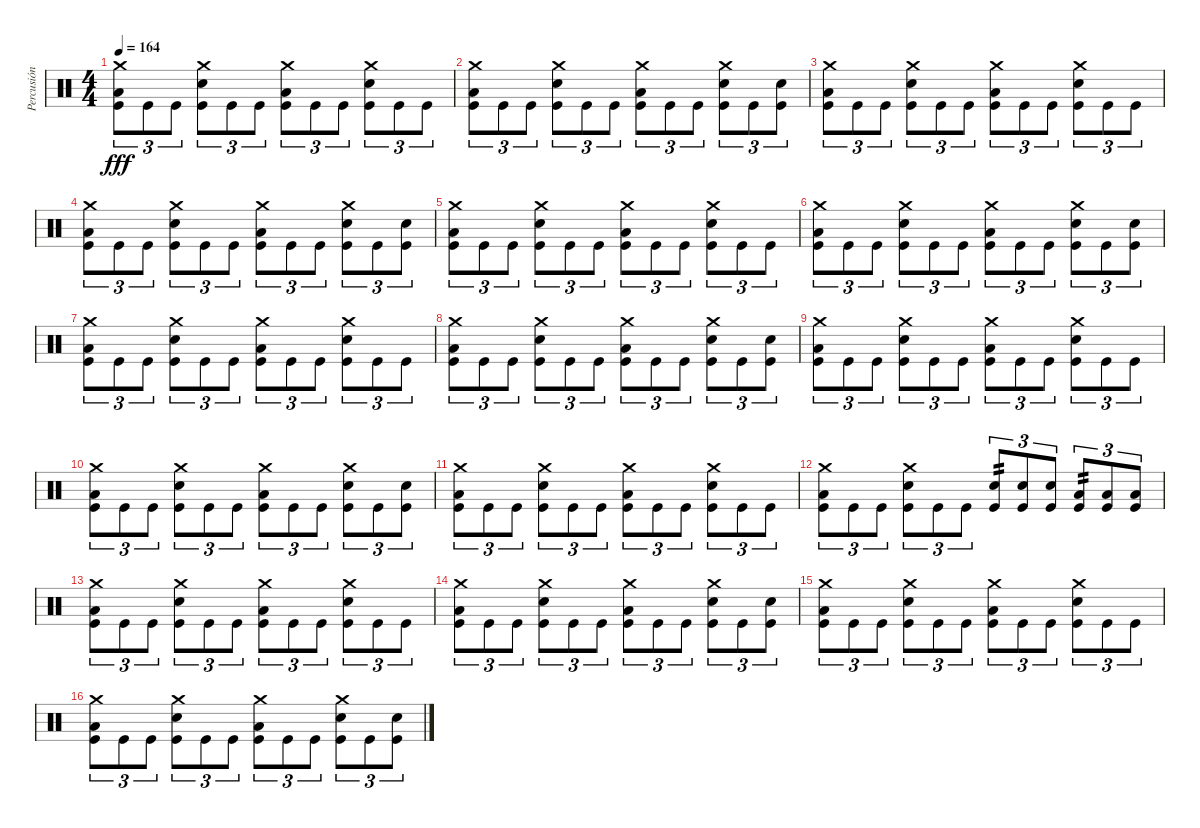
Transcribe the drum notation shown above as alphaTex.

\track ("Percusión" "Percusión") {instrument percussion}
\staff {score}
\articulation defaults
\ts (4 4)
\tempo 164
\clef neutral
\ks c
("Crash medium (hit)" "Low Floor Tom (hit)" "Kick (hit)").8{tu (3 2) dy fff} "Kick (hit)".8{tu (3 2)} "Kick (hit)".8{tu (3 2)} ("Crash medium (hit)" "Snare (hit) 2" "Kick (hit)").8{tu (3 2)} "Kick (hit)".8{tu (3 2)} "Kick (hit)".8{tu (3 2)} ("Crash medium (hit)" "Low Floor Tom (hit)" "Kick (hit)").8{tu (3 2)} "Kick (hit)".8{tu (3 2)} "Kick (hit)".8{tu (3 2)} ("Crash medium (hit)" "Snare (hit) 2" "Kick (hit)").8{tu (3 2)} "Kick (hit)".8{tu (3 2)} "Kick (hit)".8{tu (3 2)} |
("Crash medium (hit)" "Low Floor Tom (hit)" "Kick (hit)").8{tu (3 2)} "Kick (hit)".8{tu (3 2)} "Kick (hit)".8{tu (3 2)} ("Crash medium (hit)" "Snare (hit) 2" "Kick (hit)").8{tu (3 2)} "Kick (hit)".8{tu (3 2)} "Kick (hit)".8{tu (3 2)} ("Crash medium (hit)" "Low Floor Tom (hit)" "Kick (hit)").8{tu (3 2)} "Kick (hit)".8{tu (3 2)} "Kick (hit)".8{tu (3 2)} ("Crash medium (hit)" "Snare (hit) 2" "Kick (hit)").8{tu (3 2)} "Kick (hit)".8{tu (3 2)} ("Snare (hit) 2" "Kick (hit)").8{tu (3 2)} |
("Crash medium (hit)" "Low Floor Tom (hit)" "Kick (hit)").8{tu (3 2)} "Kick (hit)".8{tu (3 2)} "Kick (hit)".8{tu (3 2)} ("Crash medium (hit)" "Snare (hit) 2" "Kick (hit)").8{tu (3 2)} "Kick (hit)".8{tu (3 2)} "Kick (hit)".8{tu (3 2)} ("Crash medium (hit)" "Low Floor Tom (hit)" "Kick (hit)").8{tu (3 2)} "Kick (hit)".8{tu (3 2)} "Kick (hit)".8{tu (3 2)} ("Crash medium (hit)" "Snare (hit) 2" "Kick (hit)").8{tu (3 2)} "Kick (hit)".8{tu (3 2)} "Kick (hit)".8{tu (3 2)} |
("Crash medium (hit)" "Low Floor Tom (hit)" "Kick (hit)").8{tu (3 2)} "Kick (hit)".8{tu (3 2)} "Kick (hit)".8{tu (3 2)} ("Crash medium (hit)" "Snare (hit) 2" "Kick (hit)").8{tu (3 2)} "Kick (hit)".8{tu (3 2)} "Kick (hit)".8{tu (3 2)} ("Crash medium (hit)" "Low Floor Tom (hit)" "Kick (hit)").8{tu (3 2)} "Kick (hit)".8{tu (3 2)} "Kick (hit)".8{tu (3 2)} ("Crash medium (hit)" "Snare (hit) 2" "Kick (hit)").8{tu (3 2)} "Kick (hit)".8{tu (3 2)} ("Snare (hit) 2" "Kick (hit)").8{tu (3 2)} |
("Crash medium (hit)" "Low Floor Tom (hit)" "Kick (hit)").8{tu (3 2)} "Kick (hit)".8{tu (3 2)} "Kick (hit)".8{tu (3 2)} ("Crash medium (hit)" "Snare (hit) 2" "Kick (hit)").8{tu (3 2)} "Kick (hit)".8{tu (3 2)} "Kick (hit)".8{tu (3 2)} ("Crash medium (hit)" "Low Floor Tom (hit)" "Kick (hit)").8{tu (3 2)} "Kick (hit)".8{tu (3 2)} "Kick (hit)".8{tu (3 2)} ("Crash medium (hit)" "Snare (hit) 2" "Kick (hit)").8{tu (3 2)} "Kick (hit)".8{tu (3 2)} "Kick (hit)".8{tu (3 2)} |
("Crash medium (hit)" "Low Floor Tom (hit)" "Kick (hit)").8{tu (3 2)} "Kick (hit)".8{tu (3 2)} "Kick (hit)".8{tu (3 2)} ("Crash medium (hit)" "Snare (hit) 2" "Kick (hit)").8{tu (3 2)} "Kick (hit)".8{tu (3 2)} "Kick (hit)".8{tu (3 2)} ("Crash medium (hit)" "Low Floor Tom (hit)" "Kick (hit)").8{tu (3 2)} "Kick (hit)".8{tu (3 2)} "Kick (hit)".8{tu (3 2)} ("Crash medium (hit)" "Snare (hit) 2" "Kick (hit)").8{tu (3 2)} "Kick (hit)".8{tu (3 2)} ("Snare (hit) 2" "Kick (hit)").8{tu (3 2)} |
("Crash medium (hit)" "Low Floor Tom (hit)" "Kick (hit)").8{tu (3 2)} "Kick (hit)".8{tu (3 2)} "Kick (hit)".8{tu (3 2)} ("Crash medium (hit)" "Snare (hit) 2" "Kick (hit)").8{tu (3 2)} "Kick (hit)".8{tu (3 2)} "Kick (hit)".8{tu (3 2)} ("Crash medium (hit)" "Low Floor Tom (hit)" "Kick (hit)").8{tu (3 2)} "Kick (hit)".8{tu (3 2)} "Kick (hit)".8{tu (3 2)} ("Crash medium (hit)" "Snare (hit) 2" "Kick (hit)").8{tu (3 2)} "Kick (hit)".8{tu (3 2)} "Kick (hit)".8{tu (3 2)} |
("Crash medium (hit)" "Low Floor Tom (hit)" "Kick (hit)").8{tu (3 2)} "Kick (hit)".8{tu (3 2)} "Kick (hit)".8{tu (3 2)} ("Crash medium (hit)" "Snare (hit) 2" "Kick (hit)").8{tu (3 2)} "Kick (hit)".8{tu (3 2)} "Kick (hit)".8{tu (3 2)} ("Crash medium (hit)" "Low Floor Tom (hit)" "Kick (hit)").8{tu (3 2)} "Kick (hit)".8{tu (3 2)} "Kick (hit)".8{tu (3 2)} ("Crash medium (hit)" "Snare (hit) 2" "Kick (hit)").8{tu (3 2)} "Kick (hit)".8{tu (3 2)} ("Snare (hit) 2" "Kick (hit)").8{tu (3 2)} |
("Crash medium (hit)" "Low Floor Tom (hit)" "Kick (hit)").8{tu (3 2)} "Kick (hit)".8{tu (3 2)} "Kick (hit)".8{tu (3 2)} ("Crash medium (hit)" "Snare (hit) 2" "Kick (hit)").8{tu (3 2)} "Kick (hit)".8{tu (3 2)} "Kick (hit)".8{tu (3 2)} ("Crash medium (hit)" "Low Floor Tom (hit)" "Kick (hit)").8{tu (3 2)} "Kick (hit)".8{tu (3 2)} "Kick (hit)".8{tu (3 2)} ("Crash medium (hit)" "Snare (hit) 2" "Kick (hit)").8{tu (3 2)} "Kick (hit)".8{tu (3 2)} "Kick (hit)".8{tu (3 2)} |
("Crash medium (hit)" "Low Floor Tom (hit)" "Kick (hit)").8{tu (3 2)} "Kick (hit)".8{tu (3 2)} "Kick (hit)".8{tu (3 2)} ("Crash medium (hit)" "Snare (hit) 2" "Kick (hit)").8{tu (3 2)} "Kick (hit)".8{tu (3 2)} "Kick (hit)".8{tu (3 2)} ("Crash medium (hit)" "Low Floor Tom (hit)" "Kick (hit)").8{tu (3 2)} "Kick (hit)".8{tu (3 2)} "Kick (hit)".8{tu (3 2)} ("Crash medium (hit)" "Snare (hit) 2" "Kick (hit)").8{tu (3 2)} "Kick (hit)".8{tu (3 2)} ("Snare (hit) 2" "Kick (hit)").8{tu (3 2)} |
("Crash medium (hit)" "Low Floor Tom (hit)" "Kick (hit)").8{tu (3 2)} "Kick (hit)".8{tu (3 2)} "Kick (hit)".8{tu (3 2)} ("Crash medium (hit)" "Snare (hit) 2" "Kick (hit)").8{tu (3 2)} "Kick (hit)".8{tu (3 2)} "Kick (hit)".8{tu (3 2)} ("Crash medium (hit)" "Low Floor Tom (hit)" "Kick (hit)").8{tu (3 2)} "Kick (hit)".8{tu (3 2)} "Kick (hit)".8{tu (3 2)} ("Crash medium (hit)" "Snare (hit) 2" "Kick (hit)").8{tu (3 2)} "Kick (hit)".8{tu (3 2)} "Kick (hit)".8{tu (3 2)} |
("Crash medium (hit)" "Low Floor Tom (hit)" "Kick (hit)").8{tu (3 2)} "Kick (hit)".8{tu (3 2)} "Kick (hit)".8{tu (3 2)} ("Crash medium (hit)" "Snare (hit) 2" "Kick (hit)").8{tu (3 2)} "Kick (hit)".8{tu (3 2)} "Kick (hit)".8{tu (3 2)} ("Snare (hit) 2" "Kick (hit)").8{tu (3 2) tp 2} ("Snare (hit) 2" "Kick (hit)").8{tu (3 2)} ("Snare (hit) 2" "Kick (hit)").8{tu (3 2)} ("Low Floor Tom (hit)" "Kick (hit)").8{tu (3 2) tp 2} ("Low Floor Tom (hit)" "Kick (hit)").8{tu (3 2)} ("Low Floor Tom (hit)" "Kick (hit)").8{tu (3 2)} |
("Crash medium (hit)" "Low Floor Tom (hit)" "Kick (hit)").8{tu (3 2)} "Kick (hit)".8{tu (3 2)} "Kick (hit)".8{tu (3 2)} ("Crash medium (hit)" "Snare (hit) 2" "Kick (hit)").8{tu (3 2)} "Kick (hit)".8{tu (3 2)} "Kick (hit)".8{tu (3 2)} ("Crash medium (hit)" "Low Floor Tom (hit)" "Kick (hit)").8{tu (3 2)} "Kick (hit)".8{tu (3 2)} "Kick (hit)".8{tu (3 2)} ("Crash medium (hit)" "Snare (hit) 2" "Kick (hit)").8{tu (3 2)} "Kick (hit)".8{tu (3 2)} "Kick (hit)".8{tu (3 2)} |
("Crash medium (hit)" "Low Floor Tom (hit)" "Kick (hit)").8{tu (3 2)} "Kick (hit)".8{tu (3 2)} "Kick (hit)".8{tu (3 2)} ("Crash medium (hit)" "Snare (hit) 2" "Kick (hit)").8{tu (3 2)} "Kick (hit)".8{tu (3 2)} "Kick (hit)".8{tu (3 2)} ("Crash medium (hit)" "Low Floor Tom (hit)" "Kick (hit)").8{tu (3 2)} "Kick (hit)".8{tu (3 2)} "Kick (hit)".8{tu (3 2)} ("Crash medium (hit)" "Snare (hit) 2" "Kick (hit)").8{tu (3 2)} "Kick (hit)".8{tu (3 2)} ("Snare (hit) 2" "Kick (hit)").8{tu (3 2)} |
("Crash medium (hit)" "Low Floor Tom (hit)" "Kick (hit)").8{tu (3 2)} "Kick (hit)".8{tu (3 2)} "Kick (hit)".8{tu (3 2)} ("Crash medium (hit)" "Snare (hit) 2" "Kick (hit)").8{tu (3 2)} "Kick (hit)".8{tu (3 2)} "Kick (hit)".8{tu (3 2)} ("Crash medium (hit)" "Low Floor Tom (hit)" "Kick (hit)").8{tu (3 2)} "Kick (hit)".8{tu (3 2)} "Kick (hit)".8{tu (3 2)} ("Crash medium (hit)" "Snare (hit) 2" "Kick (hit)").8{tu (3 2)} "Kick (hit)".8{tu (3 2)} "Kick (hit)".8{tu (3 2)} |
("Crash medium (hit)" "Low Floor Tom (hit)" "Kick (hit)").8{tu (3 2)} "Kick (hit)".8{tu (3 2)} "Kick (hit)".8{tu (3 2)} ("Crash medium (hit)" "Snare (hit) 2" "Kick (hit)").8{tu (3 2)} "Kick (hit)".8{tu (3 2)} "Kick (hit)".8{tu (3 2)} ("Crash medium (hit)" "Low Floor Tom (hit)" "Kick (hit)").8{tu (3 2)} "Kick (hit)".8{tu (3 2)} "Kick (hit)".8{tu (3 2)} ("Crash medium (hit)" "Snare (hit) 2" "Kick (hit)").8{tu (3 2)} "Kick (hit)".8{tu (3 2)} ("Snare (hit) 2" "Kick (hit)").8{tu (3 2)}
